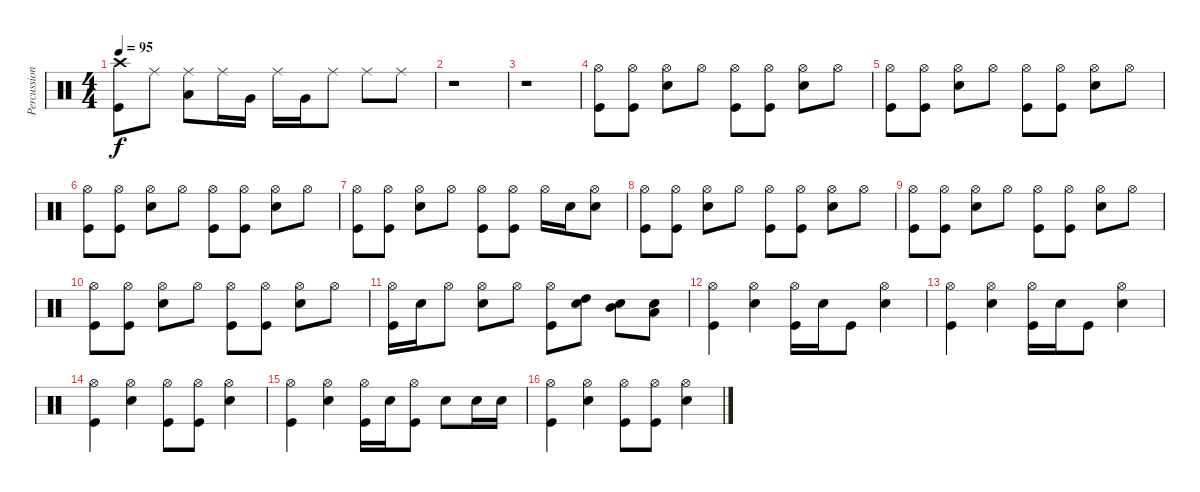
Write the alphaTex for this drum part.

\track ("Percussion" "Percussion") {instrument percussion}
\staff {score}
\articulation defaults
\ts (4 4)
\tempo 95
\clef neutral
\ks c
("Crash high (hit)" "Kick (hit)").8{dy f} "Ride (middle)".8 ("Ride (middle)" "Low Tom (hit)").8 "Ride (middle)".16 "Very Low Tom (hit)".16 "Ride (middle)".16 "Very Low Tom (hit)".16 "Ride (middle)".8 "Ride (middle)".8 "Ride (middle)".8 |
r.1 |
r.1 |
("Hi-Hat (open)" "Kick (hit)").8 ("Hi-Hat (open)" "Kick (hit)").8 ("Hi-Hat (open)" "Snare (hit) 2").8 "Hi-Hat (open)".8 ("Hi-Hat (open)" "Kick (hit)").8 ("Hi-Hat (open)" "Kick (hit)").8 ("Hi-Hat (open)" "Snare (hit) 2").8 "Hi-Hat (open)".8 |
("Hi-Hat (open)" "Kick (hit)").8 ("Hi-Hat (open)" "Kick (hit)").8 ("Hi-Hat (open)" "Snare (hit) 2").8 "Hi-Hat (open)".8 ("Hi-Hat (open)" "Kick (hit)").8 ("Hi-Hat (open)" "Kick (hit)").8 ("Hi-Hat (open)" "Snare (hit) 2").8 "Hi-Hat (open)".8 |
("Hi-Hat (open)" "Kick (hit)").8 ("Hi-Hat (open)" "Kick (hit)").8 ("Hi-Hat (open)" "Snare (hit) 2").8 "Hi-Hat (open)".8 ("Hi-Hat (open)" "Kick (hit)").8 ("Hi-Hat (open)" "Kick (hit)").8 ("Hi-Hat (open)" "Snare (hit) 2").8 "Hi-Hat (open)".8 |
("Hi-Hat (open)" "Kick (hit)").8 ("Hi-Hat (open)" "Kick (hit)").8 ("Hi-Hat (open)" "Snare (hit) 2").8 "Hi-Hat (open)".8 ("Hi-Hat (open)" "Kick (hit)").8 ("Hi-Hat (open)" "Kick (hit)").8 "Hi-Hat (open)".16 "Snare (hit) 2".16 ("Hi-Hat (open)" "Snare (hit) 2").8 |
("Hi-Hat (open)" "Kick (hit)").8 ("Hi-Hat (open)" "Kick (hit)").8 ("Hi-Hat (open)" "Snare (hit) 2").8 "Hi-Hat (open)".8 ("Hi-Hat (open)" "Kick (hit)").8 ("Hi-Hat (open)" "Kick (hit)").8 ("Hi-Hat (open)" "Snare (hit) 2").8 "Hi-Hat (open)".8 |
("Hi-Hat (open)" "Kick (hit)").8 ("Hi-Hat (open)" "Kick (hit)").8 ("Hi-Hat (open)" "Snare (hit) 2").8 "Hi-Hat (open)".8 ("Hi-Hat (open)" "Kick (hit)").8 ("Hi-Hat (open)" "Kick (hit)").8 ("Hi-Hat (open)" "Snare (hit) 2").8 "Hi-Hat (open)".8 |
("Hi-Hat (open)" "Kick (hit)").8 ("Hi-Hat (open)" "Kick (hit)").8 ("Hi-Hat (open)" "Snare (hit) 2").8 "Hi-Hat (open)".8 ("Hi-Hat (open)" "Kick (hit)").8 ("Hi-Hat (open)" "Kick (hit)").8 ("Hi-Hat (open)" "Snare (hit) 2").8 "Hi-Hat (open)".8 |
("Hi-Hat (open)" "Kick (hit)").16 "Snare (hit) 2".16 "Hi-Hat (open)".8 ("Hi-Hat (open)" "Snare (hit) 2").8 "Hi-Hat (open)".8 ("Hi-Hat (open)" "Kick (hit)").8 ("High Tom (hit)" "Snare (hit) 2").8 ("Mid Tom (hit)" "Snare (hit) 2").8 ("Low Tom (hit)" "Snare (hit) 2").8 |
("Hi-Hat (open)" "Kick (hit)").4 ("Hi-Hat (open)" "Snare (hit) 2").4 ("Hi-Hat (open)" "Kick (hit)").16 "Snare (hit) 2".16 "Kick (hit)".8 ("Hi-Hat (open)" "Snare (hit) 2").4 |
("Hi-Hat (open)" "Kick (hit)").4 ("Hi-Hat (open)" "Snare (hit) 2").4 ("Hi-Hat (open)" "Kick (hit)").16 "Snare (hit) 2".16 "Kick (hit)".8 ("Hi-Hat (open)" "Snare (hit) 2").4 |
("Hi-Hat (open)" "Kick (hit)").4 ("Hi-Hat (open)" "Snare (hit) 2").4 ("Hi-Hat (open)" "Kick (hit)").8 ("Hi-Hat (open)" "Kick (hit)").8 ("Hi-Hat (open)" "Snare (hit) 2").4 |
("Hi-Hat (open)" "Kick (hit)").4 ("Hi-Hat (open)" "Snare (hit) 2").4 ("Hi-Hat (open)" "Kick (hit)").16 "Snare (hit) 2".16 ("Hi-Hat (open)" "Kick (hit)").8 "Snare (hit) 2".8 "Snare (hit) 2".16 "Snare (hit) 2".16 |
("Hi-Hat (open)" "Kick (hit)").4 ("Hi-Hat (open)" "Snare (hit) 2").4 ("Hi-Hat (open)" "Kick (hit)").8 ("Hi-Hat (open)" "Kick (hit)").8 ("Hi-Hat (open)" "Snare (hit) 2").4
